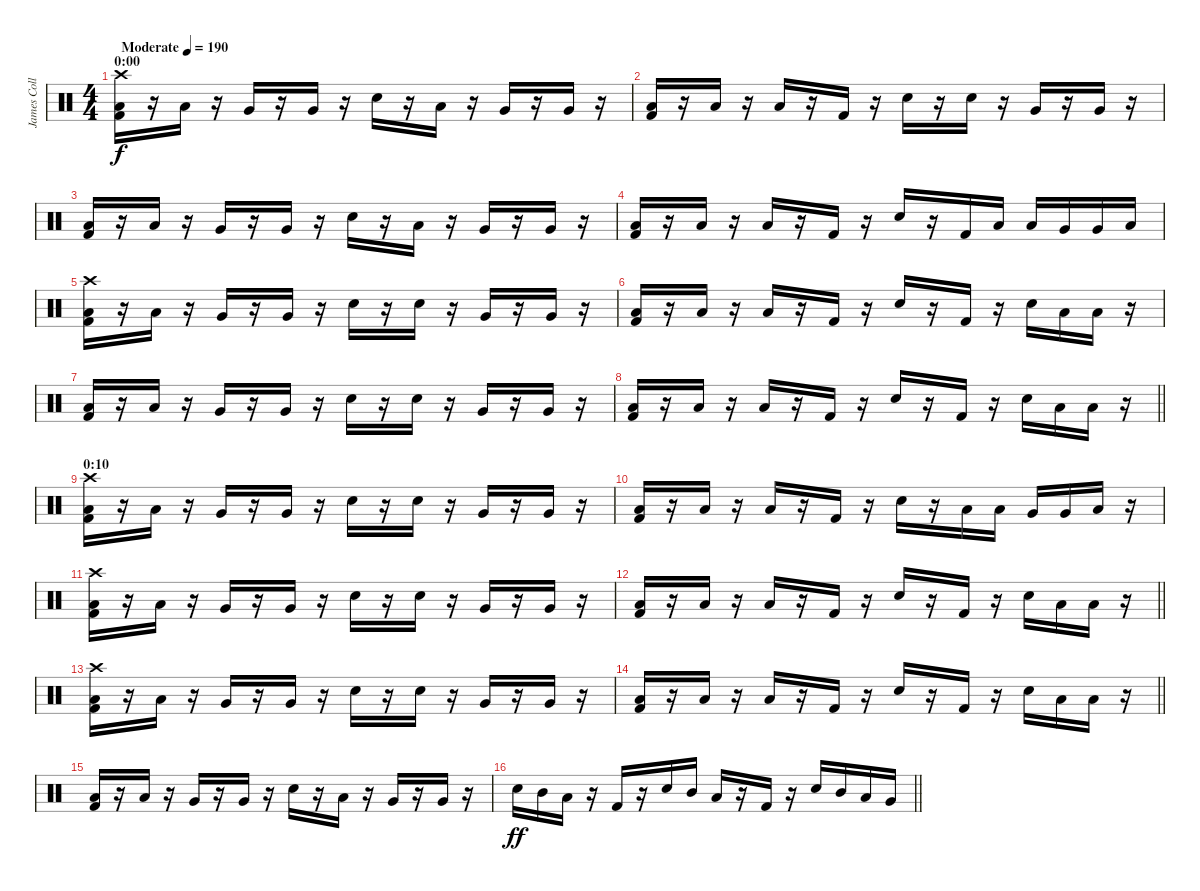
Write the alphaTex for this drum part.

\track ("James Collins" "James Coll") {instrument percussion}
\staff {score}
\articulation defaults
\ts (4 4)
\section ("" "0:00")
\tempo (190 "Moderate")
\clef neutral
\ks c
("Crash high (hit)" "Low Tom (hit)" "Kick (hit) 2").16{dy f} r.16 "Low Tom (hit)".16 r.16 "Very Low Tom (hit)".16 r.16 "Very Low Tom (hit)".16 r.16 "Electric Snare (hit)".16 r.16 "Low Tom (hit)".16 r.16 "Very Low Tom (hit)".16 r.16 "Very Low Tom (hit)".16 r.16 |
("Low Tom (hit)" "Kick (hit) 2").16 r.16 "Low Tom (hit)".16 r.16 "Low Tom (hit)".16 r.16 "Kick (hit) 2".16 r.16 "Electric Snare (hit)".16 r.16 "Electric Snare (hit)".16 r.16 "Very Low Tom (hit)".16 r.16 "Very Low Tom (hit)".16 r.16 |
("Low Tom (hit)" "Kick (hit) 2").16 r.16 "Low Tom (hit)".16 r.16 "Very Low Tom (hit)".16 r.16 "Very Low Tom (hit)".16 r.16 "Electric Snare (hit)".16 r.16 "Low Tom (hit)".16 r.16 "Very Low Tom (hit)".16 r.16 "Very Low Tom (hit)".16 r.16 |
("Low Tom (hit)" "Kick (hit) 2").16 r.16 "Low Tom (hit)".16 r.16 "Low Tom (hit)".16 r.16 "Kick (hit) 2".16 r.16 "Electric Snare (hit)".16 r.16 "Kick (hit) 2".16 "Low Tom (hit)".16 "Low Tom (hit)".16 "Very Low Tom (hit)".16 "Very Low Tom (hit)".16 "Low Floor Tom (hit)".16 |
("Crash high (hit)" "Low Tom (hit)" "Kick (hit) 2").16 r.16 "Low Tom (hit)".16 r.16 "Very Low Tom (hit)".16 r.16 "Very Low Tom (hit)".16 r.16 "Electric Snare (hit)".16 r.16 "Electric Snare (hit)".16 r.16 "Very Low Tom (hit)".16 r.16 "Very Low Tom (hit)".16 r.16 |
("Low Tom (hit)" "Kick (hit) 2").16 r.16 "Low Tom (hit)".16 r.16 "Low Tom (hit)".16 r.16 "Kick (hit) 2".16 r.16 "Electric Snare (hit)".16 r.16 "Kick (hit) 2".16 r.16 "Electric Snare (hit)".16 "Low Tom (hit)".16 "Low Tom (hit)".16 r.16 |
("Low Tom (hit)" "Kick (hit) 2").16 r.16 "Low Tom (hit)".16 r.16 "Very Low Tom (hit)".16 r.16 "Very Low Tom (hit)".16 r.16 "Electric Snare (hit)".16 r.16 "Electric Snare (hit)".16 r.16 "Very Low Tom (hit)".16 r.16 "Very Low Tom (hit)".16 r.16 |
\barLineRight lightlight
("Low Tom (hit)" "Kick (hit) 2").16 r.16 "Low Tom (hit)".16 r.16 "Low Tom (hit)".16 r.16 "Kick (hit) 2".16 r.16 "Electric Snare (hit)".16 r.16 "Kick (hit) 2".16 r.16 "Electric Snare (hit)".16 "Low Tom (hit)".16 "Low Tom (hit)".16 r.16 |
\section ("" "0:10")
("Crash high (hit)" "Low Tom (hit)" "Kick (hit) 2").16 r.16 "Low Tom (hit)".16 r.16 "Very Low Tom (hit)".16 r.16 "Very Low Tom (hit)".16 r.16 "Electric Snare (hit)".16 r.16 "Electric Snare (hit)".16 r.16 "Very Low Tom (hit)".16 r.16 "Very Low Tom (hit)".16 r.16 |
("Low Tom (hit)" "Kick (hit) 2").16 r.16 "Low Tom (hit)".16 r.16 "Low Tom (hit)".16 r.16 "Kick (hit) 2".16 r.16 "Electric Snare (hit)".16 r.16 "Low Tom (hit)".16 "Low Tom (hit)".16 "Very Low Tom (hit)".16 "Very Low Tom (hit)".16 "Low Floor Tom (hit)".16 r.16 |
("Crash high (hit)" "Low Tom (hit)" "Kick (hit) 2").16 r.16 "Low Tom (hit)".16 r.16 "Very Low Tom (hit)".16 r.16 "Very Low Tom (hit)".16 r.16 "Electric Snare (hit)".16 r.16 "Electric Snare (hit)".16 r.16 "Very Low Tom (hit)".16 r.16 "Very Low Tom (hit)".16 r.16 |
\barLineRight lightlight
("Low Tom (hit)" "Kick (hit) 2").16 r.16 "Low Tom (hit)".16 r.16 "Low Tom (hit)".16 r.16 "Kick (hit) 2".16 r.16 "Electric Snare (hit)".16 r.16 "Kick (hit) 2".16 r.16 "Electric Snare (hit)".16 "Low Tom (hit)".16 "Low Tom (hit)".16 r.16 |
("Crash high (hit)" "Low Tom (hit)" "Kick (hit) 2").16 r.16 "Low Tom (hit)".16 r.16 "Very Low Tom (hit)".16 r.16 "Very Low Tom (hit)".16 r.16 "Electric Snare (hit)".16 r.16 "Electric Snare (hit)".16 r.16 "Very Low Tom (hit)".16 r.16 "Very Low Tom (hit)".16 r.16 |
\barLineRight lightlight
("Low Tom (hit)" "Kick (hit) 2").16 r.16 "Low Tom (hit)".16 r.16 "Low Tom (hit)".16 r.16 "Kick (hit) 2".16 r.16 "Electric Snare (hit)".16 r.16 "Kick (hit) 2".16 r.16 "Electric Snare (hit)".16 "Low Tom (hit)".16 "Low Tom (hit)".16 r.16 |
("Low Tom (hit)" "Kick (hit) 2").16 r.16 "Low Tom (hit)".16 r.16 "Very Low Tom (hit)".16 r.16 "Very Low Tom (hit)".16 r.16 "Electric Snare (hit)".16 r.16 "Low Tom (hit)".16 r.16 "Very Low Tom (hit)".16 r.16 "Very Low Tom (hit)".16 r.16 |
\barLineRight lightlight "Electric Snare (hit)".16{dy ff} "Mid Tom (hit)".16 "Low Tom (hit)".16
r.16 "Kick (hit) 2".16 r.16 "Electric Snare (hit)".16 "Mid Tom (hit)".16 "Low Tom (hit)".16 r.16 "Kick (hit) 2".16 r.16 "Electric Snare (hit)".16 "Mid Tom (hit)".16 "Low Tom (hit)".16 "Very Low Tom (hit)".16
